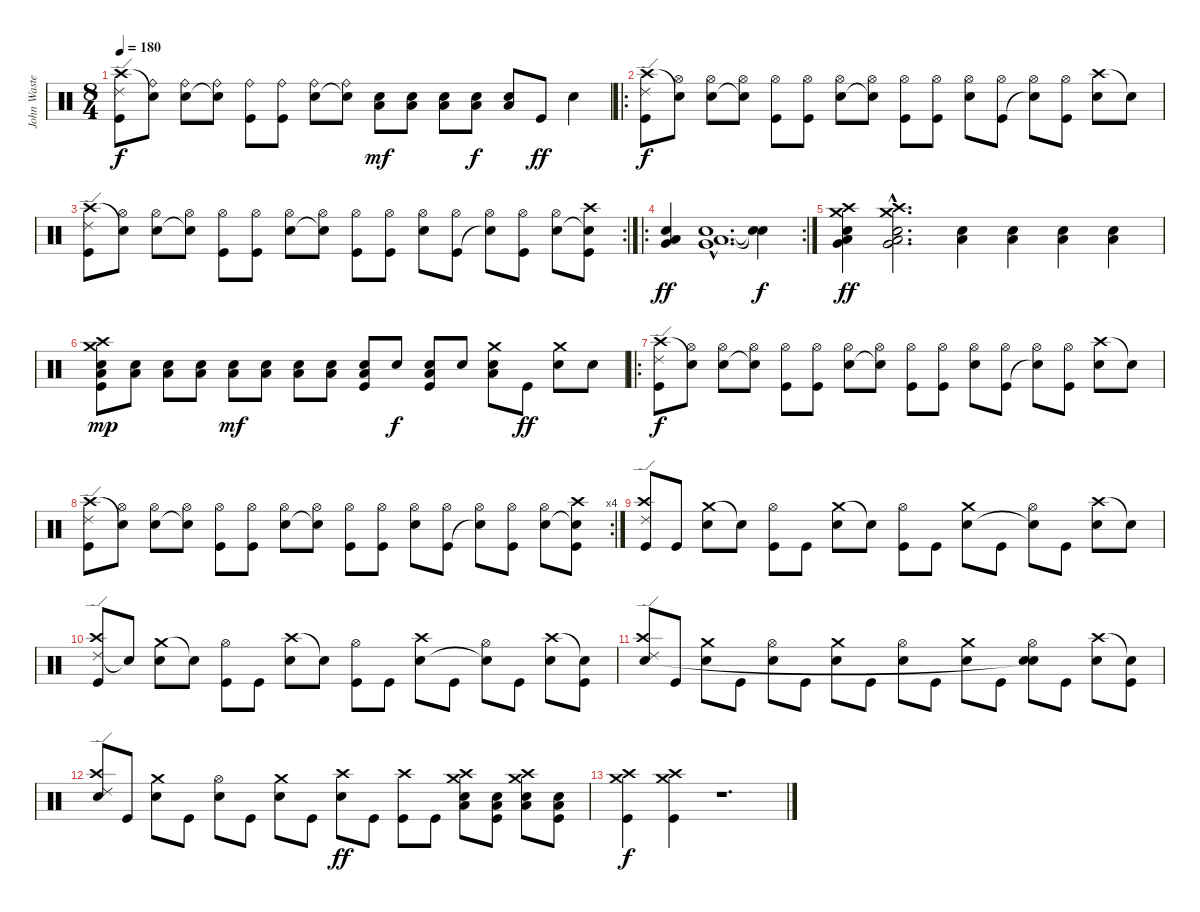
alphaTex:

\track ("John Wasted" "John Waste") {instrument percussion}
\staff {score}
\articulation defaults
\ts (8 4)
\tempo 180
\clef neutral
\ks c
("Ride (edge) 2" "Crash high (hit)" "Kick (hit)").8{dy f} ("Ride (bell)" "Snare (hit)"{t}).8 ("Ride (bell)" "Snare (hit) 2").8 ("Ride (bell)" "Snare (hit)"{t}).8 ("Ride (bell)" "Kick (hit)").8 ("Ride (bell)" "Kick (hit)").8 ("Ride (bell)" "Snare (hit) 2").8 ("Ride (bell)" "Snare (hit)"{t}).8 ("Snare (hit) 2" "Low Tom (hit)").8{dy mf} ("Snare (hit) 2" "Low Tom (hit)").8 ("Snare (hit) 2" "Low Tom (hit)").8 ("Snare (hit) 2" "Low Tom (hit)").8{dy f} ("Snare (hit) 2" "Low Tom (hit)").8 "Kick (hit)".8{dy ff} "Snare (hit) 2".4 |
\ro
("Ride (edge) 2" "Crash high (hit)" "Kick (hit)").8{dy f} ("Hi-Hat (open)" "Snare (hit)"{t}).8 ("Hi-Hat (open)" "Snare (hit) 2").8 ("Hi-Hat (open)" "Snare (hit)"{t}).8 ("Hi-Hat (open)" "Kick (hit)").8 ("Hi-Hat (open)" "Kick (hit)").8 ("Hi-Hat (open)" "Snare (hit) 2").8 ("Hi-Hat (open)" "Snare (hit)"{t}).8 ("Hi-Hat (open)" "Kick (hit)").8 ("Hi-Hat (open)" "Kick (hit)").8 ("Hi-Hat (open)" "Snare (hit) 2").8 ("Hi-Hat (open)" "Kick (hit)").8 ("Hi-Hat (open)" "Snare (hit)"{t}).8 ("Hi-Hat (open)" "Kick (hit)").8 ("Crash high (hit)" "Snare (hit) 2").8 "Snare (hit)"{t}.8 |
\rc 2
("Ride (edge) 2" "Crash high (hit)" "Kick (hit)").8 ("Hi-Hat (open)" "Snare (hit)"{t}).8 ("Hi-Hat (open)" "Snare (hit) 2").8 ("Hi-Hat (open)" "Snare (hit)"{t}).8 ("Hi-Hat (open)" "Kick (hit)").8 ("Hi-Hat (open)" "Kick (hit)").8 ("Hi-Hat (open)" "Snare (hit) 2").8 ("Hi-Hat (open)" "Snare (hit)"{t}).8 ("Hi-Hat (open)" "Kick (hit)").8 ("Hi-Hat (open)" "Kick (hit)").8 ("Hi-Hat (open)" "Snare (hit) 2").8 ("Hi-Hat (open)" "Kick (hit)").8 ("Hi-Hat (open)" "Snare (hit)"{t}).8 ("Hi-Hat (open)" "Kick (hit)").8 ("Hi-Hat (open)" "Snare (hit) 2").8 ("Crash high (hit)" "Snare (hit)"{t} "Kick (hit)").8 |
\ro
\rc 2
("Snare (hit) 2" "Low Tom (hit)" "Very Low Tom (hit)").4{dy ff} ("Snare (hit) 2"{hac} "Low Tom (hit)"{hac} "Very Low Tom (hit)"{hac}).1{d} ("Snare (hit)"{t} "Snare (hit)"{t}).4{dy f} |
("Crash medium (hit)" "Crash high (hit)" "Snare (hit) 2" "Low Tom (hit)" "Very Low Tom (hit)").4{dy ff} ("Crash medium (hit)"{hac} "Crash high (hit)"{hac} "Snare (hit) 2"{hac} "Low Tom (hit)"{hac} "Very Low Tom (hit)"{hac}).2{d} ("Snare (hit) 2" "Low Tom (hit)").4 ("Snare (hit) 2" "Low Tom (hit)").4 ("Snare (hit) 2" "Low Tom (hit)").4 ("Snare (hit) 2" "Low Tom (hit)").4 |
("Crash medium (hit)" "Crash high (hit)" "Snare (hit) 2" "Low Tom (hit)" "Kick (hit)").8{dy mp} ("Snare (hit) 2" "Low Tom (hit)").8 ("Snare (hit) 2" "Low Tom (hit)").8 ("Snare (hit) 2" "Low Tom (hit)").8 ("Snare (hit) 2" "Low Tom (hit)").8{dy mf} ("Snare (hit) 2" "Low Tom (hit)").8 ("Snare (hit) 2" "Low Tom (hit)").8 ("Snare (hit) 2" "Low Tom (hit)").8 ("Snare (hit) 2" "Low Tom (hit)" "Kick (hit)").8 "Snare (hit) 2".8{dy f} ("Snare (hit) 2" "Low Tom (hit)" "Kick (hit)").8 "Snare (hit) 2".8 ("Crash medium (hit)" "Snare (hit) 2" "Low Tom (hit)").8 "Kick (hit)".8{dy ff} ("Crash medium (hit)" "Snare (hit) 2").8 "Snare (hit) 2".8 |
\ro
("Ride (edge) 2" "Crash high (hit)" "Kick (hit)").8{dy f} ("Hi-Hat (open)" "Snare (hit)"{t}).8 ("Hi-Hat (open)" "Snare (hit) 2").8 ("Hi-Hat (open)" "Snare (hit)"{t}).8 ("Hi-Hat (open)" "Kick (hit)").8 ("Hi-Hat (open)" "Kick (hit)").8 ("Hi-Hat (open)" "Snare (hit) 2").8 ("Hi-Hat (open)" "Snare (hit)"{t}).8 ("Hi-Hat (open)" "Kick (hit)").8 ("Hi-Hat (open)" "Kick (hit)").8 ("Hi-Hat (open)" "Snare (hit) 2").8 ("Hi-Hat (open)" "Kick (hit)").8 ("Hi-Hat (open)" "Snare (hit)"{t}).8 ("Hi-Hat (open)" "Kick (hit)").8 ("Crash high (hit)" "Snare (hit) 2").8 "Snare (hit)"{t}.8 |
\rc 4
("Ride (edge) 2" "Crash high (hit)" "Kick (hit)").8 ("Hi-Hat (open)" "Snare (hit)"{t}).8 ("Hi-Hat (open)" "Snare (hit) 2").8 ("Hi-Hat (open)" "Snare (hit)"{t}).8 ("Hi-Hat (open)" "Kick (hit)").8 ("Hi-Hat (open)" "Kick (hit)").8 ("Hi-Hat (open)" "Snare (hit) 2").8 ("Hi-Hat (open)" "Snare (hit)"{t}).8 ("Hi-Hat (open)" "Kick (hit)").8 ("Hi-Hat (open)" "Kick (hit)").8 ("Hi-Hat (open)" "Snare (hit) 2").8 ("Hi-Hat (open)" "Kick (hit)").8 ("Hi-Hat (open)" "Snare (hit)"{t}).8 ("Hi-Hat (open)" "Kick (hit)").8 ("Hi-Hat (open)" "Snare (hit) 2").8 ("Crash high (hit)" "Snare (hit)"{t} "Kick (hit)").8 |
("Ride (edge) 2" "Crash high (hit)" "Kick (hit)").8 "Kick (hit)".8 ("Crash medium (hit)" "Snare (hit) 2").8 "Snare (hit)"{t}.8 ("Hi-Hat (open)" "Kick (hit)").8 "Kick (hit)".8 ("Crash medium (hit)" "Snare (hit) 2").8 "Snare (hit)"{t}.8 ("Hi-Hat (open)" "Kick (hit)").8 "Kick (hit)".8 ("Crash medium (hit)" "Snare (hit) 2").8 "Kick (hit)".8 ("Hi-Hat (open)" "Snare (hit)"{t}).8 "Kick (hit)".8 ("Crash high (hit)" "Snare (hit) 2").8 "Snare (hit)"{t}.8 |
("Ride (edge) 2" "Crash high (hit)" "Kick (hit)").8 "Snare (hit)"{t}.8 ("Crash medium (hit)" "Snare (hit) 2").8 "Snare (hit)"{t}.8 ("Hi-Hat (open)" "Kick (hit)").8 "Kick (hit)".8 ("Crash high (hit)" "Snare (hit) 2").8 "Snare (hit)"{t}.8 ("Hi-Hat (open)" "Kick (hit)").8 "Kick (hit)".8 ("Crash high (hit)" "Snare (hit) 2").8 "Kick (hit)".8 ("Hi-Hat (open)" "Snare (hit)"{t}).8 "Kick (hit)".8 ("Crash high (hit)" "Snare (hit) 2").8 ("Snare (hit)"{t} "Kick (hit)").8 |
("Ride (edge) 2" "Crash high (hit)" "Snare (hit) 2").8 "Kick (hit)".8 ("Crash medium (hit)" "Snare (hit) 2").8 "Kick (hit)".8 ("Hi-Hat (open)" "Snare (hit) 2").8 "Kick (hit)".8 ("Crash medium (hit)" "Snare (hit) 2").8 "Kick (hit)".8 ("Hi-Hat (open)" "Snare (hit) 2").8 "Kick (hit)".8 ("Crash medium (hit)" "Snare (hit) 2").8 "Kick (hit)".8 ("Hi-Hat (open)" "Snare (hit) 2" "Snare (hit)"{t}).8 "Kick (hit)".8 ("Crash high (hit)" "Snare (hit) 2").8 ("Snare (hit)"{t} "Kick (hit)").8 |
("Ride (edge) 2" "Crash high (hit)" "Snare (hit) 2").8 "Kick (hit)".8 ("Crash medium (hit)" "Snare (hit) 2").8 "Kick (hit)".8 ("Hi-Hat (open)" "Snare (hit) 2").8 "Kick (hit)".8 ("Crash medium (hit)" "Snare (hit) 2").8 "Kick (hit)".8 ("Crash high (hit)" "Snare (hit) 2").8{dy ff} "Kick (hit)".8 ("Crash high (hit)" "Kick (hit)").8 "Kick (hit)".8 ("Crash medium (hit)" "Crash high (hit)" "Snare (hit) 2" "Low Tom (hit)").8 ("Snare (hit) 2" "Low Tom (hit)" "Kick (hit)").8 ("Crash medium (hit)" "Crash high (hit)" "Snare (hit) 2" "Low Tom (hit)").8 ("Snare (hit) 2" "Low Tom (hit)" "Kick (hit)").8 |
("Crash medium (hit)" "Crash high (hit)" "Kick (hit)").4{dy f} ("Crash medium (hit)" "Crash high (hit)" "Kick (hit)").4 r.1{d}
